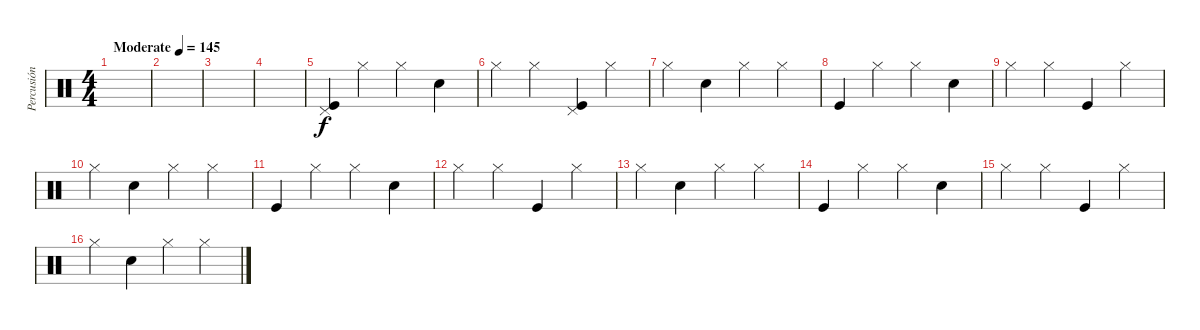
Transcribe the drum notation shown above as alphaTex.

\track ("Percusión" "Percusión") {instrument percussion}
\staff {score}
\articulation defaults
\ts (4 4)
\tempo (145 "Moderate")
\clef neutral
\ks c
|
|
|
|
("Pedal Hi-Hat (hit)" "Kick (hit)").4 "Hi-Hat (closed)".4 "Hi-Hat (closed)".4 "Snare (hit) 2".4 |
"Hi-Hat (closed)".4 "Hi-Hat (closed)".4 ("Pedal Hi-Hat (hit)" "Kick (hit)").4 "Hi-Hat (closed)".4 |
"Hi-Hat (closed)".4 "Snare (hit) 2".4 "Hi-Hat (closed)".4 "Hi-Hat (closed)".4 |
"Kick (hit)".4 "Hi-Hat (closed)".4 "Hi-Hat (closed)".4 "Snare (hit) 2".4 |
"Hi-Hat (closed)".4 "Hi-Hat (closed)".4 "Kick (hit)".4 "Hi-Hat (closed)".4 |
"Hi-Hat (closed)".4 "Snare (hit) 2".4 "Hi-Hat (closed)".4 "Hi-Hat (closed)".4 |
"Kick (hit)".4 "Hi-Hat (closed)".4 "Hi-Hat (closed)".4 "Snare (hit) 2".4 |
"Hi-Hat (closed)".4 "Hi-Hat (closed)".4 "Kick (hit)".4 "Hi-Hat (closed)".4 |
"Hi-Hat (closed)".4 "Snare (hit) 2".4 "Hi-Hat (closed)".4 "Hi-Hat (closed)".4 |
"Kick (hit)".4 "Hi-Hat (closed)".4 "Hi-Hat (closed)".4 "Snare (hit) 2".4 |
"Hi-Hat (closed)".4 "Hi-Hat (closed)".4 "Kick (hit)".4 "Hi-Hat (closed)".4 |
"Hi-Hat (closed)".4 "Snare (hit) 2".4 "Hi-Hat (closed)".4 "Hi-Hat (closed)".4
